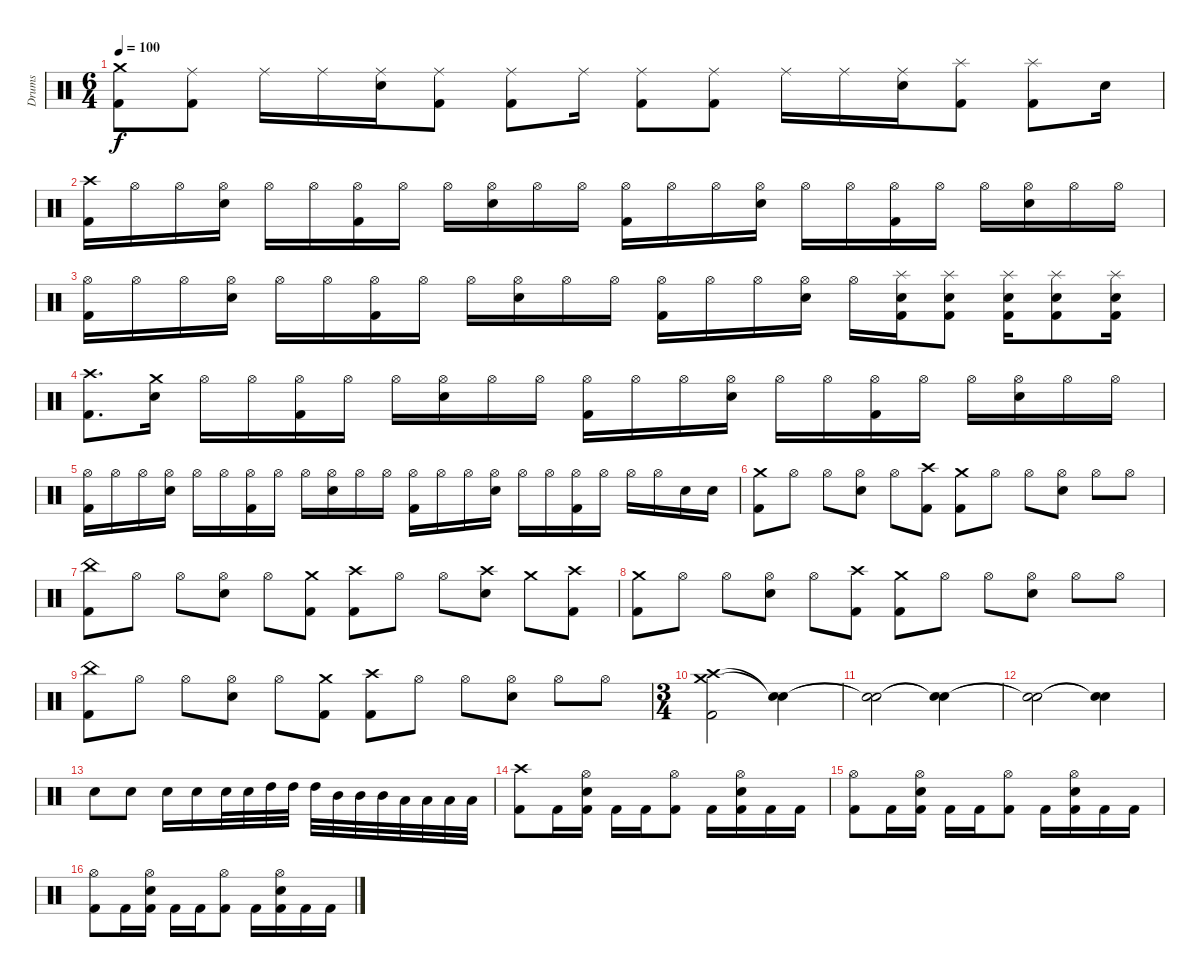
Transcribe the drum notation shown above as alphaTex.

\track ("Drums" "Drums") {instrument percussion}
\staff {score}
\articulation defaults
\ts (6 4)
\tempo 100
\clef neutral
\ks c
("Crash medium (hit)" "Kick (hit) 2").8{dy f} ("Ride (middle)" "Kick (hit) 2").8 "Ride (middle)".16 "Ride (middle)".16 ("Ride (middle)" "Electric Snare (hit)").16 ("Ride (middle)" "Kick (hit) 2").8 ("Ride (middle)" "Kick (hit) 2").8 "Ride (middle)".16 ("Ride (middle)" "Kick (hit) 2").8 ("Ride (middle)" "Kick (hit) 2").8 "Ride (middle)".16 "Ride (middle)".16 ("Ride (middle)" "Electric Snare (hit)").16 ("Splash (hit)" "Kick (hit) 2").8 ("Splash (hit)" "Kick (hit) 2").8 "Electric Snare (hit)".16 |
("Crash high (hit)" "Kick (hit) 2").16 "Hi-Hat (open)".16 "Hi-Hat (open)".16 ("Hi-Hat (open)" "Electric Snare (hit)").16 "Hi-Hat (open)".16 "Hi-Hat (open)".16 ("Hi-Hat (open)" "Kick (hit) 2").16 "Hi-Hat (open)".16 "Hi-Hat (open)".16 ("Hi-Hat (open)" "Electric Snare (hit)").16 "Hi-Hat (open)".16 "Hi-Hat (open)".16 ("Hi-Hat (open)" "Kick (hit) 2").16 "Hi-Hat (open)".16 "Hi-Hat (open)".16 ("Hi-Hat (open)" "Electric Snare (hit)").16 "Hi-Hat (open)".16 "Hi-Hat (open)".16 ("Hi-Hat (open)" "Kick (hit) 2").16 "Hi-Hat (open)".16 "Hi-Hat (open)".16 ("Hi-Hat (open)" "Electric Snare (hit)").16 "Hi-Hat (open)".16 "Hi-Hat (open)".16 |
("Hi-Hat (open)" "Kick (hit) 2").16 "Hi-Hat (open)".16 "Hi-Hat (open)".16 ("Hi-Hat (open)" "Electric Snare (hit)").16 "Hi-Hat (open)".16 "Hi-Hat (open)".16 ("Hi-Hat (open)" "Kick (hit) 2").16 "Hi-Hat (open)".16 "Hi-Hat (open)".16 ("Hi-Hat (open)" "Electric Snare (hit)").16 "Hi-Hat (open)".16 "Hi-Hat (open)".16 ("Hi-Hat (open)" "Kick (hit) 2").16 "Hi-Hat (open)".16 "Hi-Hat (open)".16 ("Hi-Hat (open)" "Electric Snare (hit)").16 "Hi-Hat (open)".16 ("Splash (hit)" "Electric Snare (hit)" "Kick (hit) 2").16 ("Splash (hit)" "Electric Snare (hit)" "Kick (hit) 2").8 ("Splash (hit)" "Electric Snare (hit)" "Kick (hit) 2").16 ("Splash (hit)" "Electric Snare (hit)" "Kick (hit) 2").8 ("Splash (hit)" "Electric Snare (hit)" "Kick (hit) 2").16 |
("Crash high (hit)" "Kick (hit) 2").8{d} ("Crash medium (hit)" "Electric Snare (hit)").16 "Hi-Hat (open)".16 "Hi-Hat (open)".16 ("Hi-Hat (open)" "Kick (hit) 2").16 "Hi-Hat (open)".16 "Hi-Hat (open)".16 ("Hi-Hat (open)" "Electric Snare (hit)").16 "Hi-Hat (open)".16 "Hi-Hat (open)".16 ("Hi-Hat (open)" "Kick (hit) 2").16 "Hi-Hat (open)".16 "Hi-Hat (open)".16 ("Hi-Hat (open)" "Electric Snare (hit)").16 "Hi-Hat (open)".16 "Hi-Hat (open)".16 ("Hi-Hat (open)" "Kick (hit) 2").16 "Hi-Hat (open)".16 "Hi-Hat (open)".16 ("Hi-Hat (open)" "Electric Snare (hit)").16 "Hi-Hat (open)".16 "Hi-Hat (open)".16 |
("Hi-Hat (open)" "Kick (hit) 2").16 "Hi-Hat (open)".16 "Hi-Hat (open)".16 ("Hi-Hat (open)" "Electric Snare (hit)").16 "Hi-Hat (open)".16 "Hi-Hat (open)".16 ("Hi-Hat (open)" "Kick (hit) 2").16 "Hi-Hat (open)".16 "Hi-Hat (open)".16 ("Hi-Hat (open)" "Electric Snare (hit)").16 "Hi-Hat (open)".16 "Hi-Hat (open)".16 ("Hi-Hat (open)" "Kick (hit) 2").16 "Hi-Hat (open)".16 "Hi-Hat (open)".16 ("Hi-Hat (open)" "Electric Snare (hit)").16 "Hi-Hat (open)".16 "Hi-Hat (open)".16 ("Hi-Hat (open)" "Kick (hit) 2").16 "Hi-Hat (open)".16 "Hi-Hat (open)".16 "Hi-Hat (open)".16 "Electric Snare (hit)".16 "Electric Snare (hit)".16 |
("Crash medium (hit)" "Kick (hit) 2").8 "Hi-Hat (open)".8 "Hi-Hat (open)".8 ("Hi-Hat (open)" "Electric Snare (hit)").8 "Hi-Hat (open)".8 ("Crash high (hit)" "Kick (hit) 2").8 ("Crash medium (hit)" "Kick (hit) 2").8 "Hi-Hat (open)".8 "Hi-Hat (open)".8 ("Hi-Hat (open)" "Electric Snare (hit)").8 "Hi-Hat (open)".8 "Hi-Hat (open)".8 |
("China (hit)" "Kick (hit) 2").8 "Hi-Hat (open)".8 "Hi-Hat (open)".8 ("Hi-Hat (open)" "Electric Snare (hit)").8 "Hi-Hat (open)".8 ("Crash medium (hit)" "Kick (hit) 2").8 ("Crash high (hit)" "Kick (hit) 2").8 "Hi-Hat (open)".8 "Hi-Hat (open)".8 ("Crash high (hit)" "Electric Snare (hit)").8 "Crash medium (hit)".8 ("Crash high (hit)" "Kick (hit) 2").8 |
("Crash medium (hit)" "Kick (hit) 2").8 "Hi-Hat (open)".8 "Hi-Hat (open)".8 ("Hi-Hat (open)" "Electric Snare (hit)").8 "Hi-Hat (open)".8 ("Crash high (hit)" "Kick (hit) 2").8 ("Crash medium (hit)" "Kick (hit) 2").8 "Hi-Hat (open)".8 "Hi-Hat (open)".8 ("Hi-Hat (open)" "Electric Snare (hit)").8 "Hi-Hat (open)".8 "Hi-Hat (open)".8 |
("China (hit)" "Kick (hit) 2").8 "Hi-Hat (open)".8 "Hi-Hat (open)".8 ("Hi-Hat (open)" "Electric Snare (hit)").8 "Hi-Hat (open)".8 ("Crash medium (hit)" "Kick (hit) 2").8 ("Crash high (hit)" "Kick (hit) 2").8 "Hi-Hat (open)".8 "Hi-Hat (open)".8 ("Hi-Hat (open)" "Electric Snare (hit)").8 "Hi-Hat (open)".8 "Hi-Hat (open)".8 |
\ts (3 4)
("Crash medium (hit)" "Crash high (hit)" "Kick (hit) 2").2 ("Snare (hit)"{t} "Snare (hit)"{t}).4 |
("Snare (hit)"{t} "Snare (hit)"{t}).2 ("Snare (hit)"{t} "Snare (hit)"{t}).4 |
("Snare (hit)"{t} "Snare (hit)"{t}).2 ("Snare (hit)"{t} "Snare (hit)"{t}).4 |
"Electric Snare (hit)".8 "Electric Snare (hit)".8 "Electric Snare (hit)".16 "Electric Snare (hit)".16 "Electric Snare (hit)".32 "Electric Snare (hit)".32 "High Tom (hit)".32 "High Tom (hit)".32 "High Tom (hit)".32 "Mid Tom (hit)".32 "Mid Tom (hit)".32 "Mid Tom (hit)".32 "Low Tom (hit)".32 "Low Tom (hit)".32 "Low Tom (hit)".32 "Low Tom (hit)".32 |
("Crash high (hit)" "Kick (hit) 2").8 "Kick (hit) 2".16 ("Hi-Hat (open)" "Electric Snare (hit)" "Kick (hit) 2").16 "Kick (hit) 2".16 "Kick (hit) 2".16 ("Hi-Hat (open)" "Kick (hit) 2").8 "Kick (hit) 2".16 ("Hi-Hat (open)" "Electric Snare (hit)" "Kick (hit) 2").16 "Kick (hit) 2".16 "Kick (hit) 2".16 |
("Hi-Hat (open)" "Kick (hit) 2").8 "Kick (hit) 2".16 ("Hi-Hat (open)" "Electric Snare (hit)" "Kick (hit) 2").16 "Kick (hit) 2".16 "Kick (hit) 2".16 ("Hi-Hat (open)" "Kick (hit) 2").8 "Kick (hit) 2".16 ("Hi-Hat (open)" "Electric Snare (hit)" "Kick (hit) 2").16 "Kick (hit) 2".16 "Kick (hit) 2".16 |
("Hi-Hat (open)" "Kick (hit) 2").8 "Kick (hit) 2".16 ("Hi-Hat (open)" "Electric Snare (hit)" "Kick (hit) 2").16 "Kick (hit) 2".16 "Kick (hit) 2".16 ("Hi-Hat (open)" "Kick (hit) 2").8 "Kick (hit) 2".16 ("Hi-Hat (open)" "Electric Snare (hit)" "Kick (hit) 2").16 "Kick (hit) 2".16 "Kick (hit) 2".16
